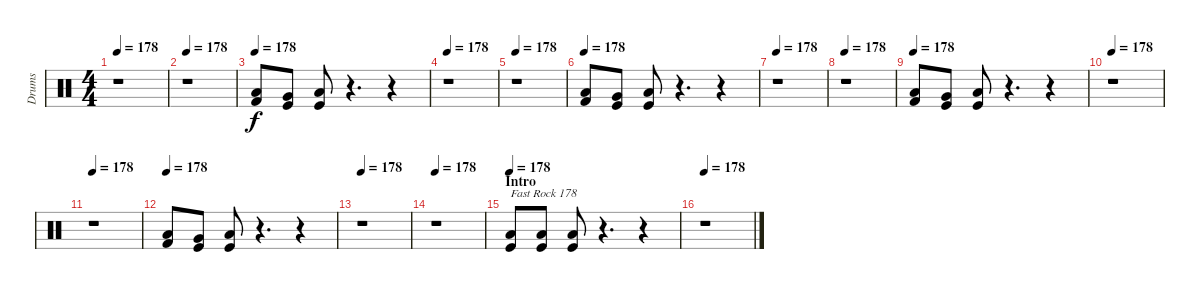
\track ("Drums" "Drums") {instrument percussion}
\staff {score}
\articulation defaults
\ts (4 4)
\tempo 178
\clef neutral
\ks c
r.1{dy f} |
\tempo 178
r.1 |
\tempo 178
("Low Floor Tom (hit)" "Kick (hit) 2").8 ("Very Low Tom (hit)" "Kick (hit)").8 ("Low Floor Tom (hit)" "Kick (hit)").8 r.4{d} r.4 |
\tempo 178
r.1 |
\tempo 178
r.1 |
\tempo 178
("Low Floor Tom (hit)" "Kick (hit) 2").8 ("Very Low Tom (hit)" "Kick (hit)").8 ("Low Floor Tom (hit)" "Kick (hit)").8 r.4{d} r.4 |
\tempo 178
r.1 |
\tempo 178
r.1 |
\tempo 178
("Low Floor Tom (hit)" "Kick (hit) 2").8 ("Very Low Tom (hit)" "Kick (hit)").8 ("Low Floor Tom (hit)" "Kick (hit)").8 r.4{d} r.4 |
\tempo 178
r.1 |
\tempo 178
r.1 |
\tempo 178
("Low Floor Tom (hit)" "Kick (hit) 2").8 ("Very Low Tom (hit)" "Kick (hit)").8 ("Low Floor Tom (hit)" "Kick (hit)").8 r.4{d} r.4 |
\tempo 178
r.1 |
\tempo 178
r.1 |
\section ("" "Intro")
\tempo 178
("Low Floor Tom (hit)" "Kick (hit)").8{txt "Fast Rock 178"} ("Low Floor Tom (hit)" "Kick (hit)").8 ("Low Floor Tom (hit)" "Kick (hit)").8 r.4{d} r.4 |
\tempo 178
r.1
